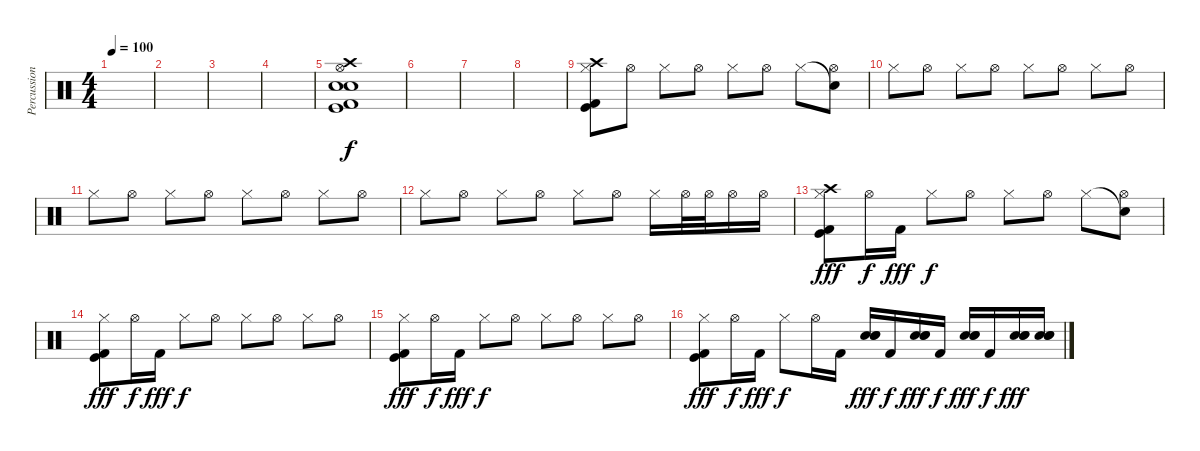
\track ("Percussion" "Percussion") {instrument percussion}
\staff {score}
\articulation defaults
\ts (4 4)
\tempo 100
\clef neutral
\ks c
|
|
|
|
("Crash high (hit)" "Hi-Hat (open)" "Snare (hit) 2" "Snare (hit) 2" "Kick (hit)" "Kick (hit) 2").1 |
|
|
|
("Crash high (hit)" "Hi-Hat (closed)" "Kick (hit)" "Kick (hit) 2").8 "Hi-Hat (open)".8{dy f} "Hi-Hat (closed)".8 "Hi-Hat (open)".8 "Hi-Hat (closed)".8 "Hi-Hat (open)".8 "Hi-Hat (closed)".8 ("Snare (hit)"{t} "Hi-Hat (open)").8 |
"Hi-Hat (closed)".8 "Hi-Hat (open)".8 "Hi-Hat (closed)".8 "Hi-Hat (open)".8 "Hi-Hat (closed)".8 "Hi-Hat (open)".8 "Hi-Hat (closed)".8 "Hi-Hat (open)".8 |
"Hi-Hat (closed)".8 "Hi-Hat (open)".8 "Hi-Hat (closed)".8 "Hi-Hat (open)".8 "Hi-Hat (closed)".8 "Hi-Hat (open)".8 "Hi-Hat (closed)".8 "Hi-Hat (open)".8 |
"Hi-Hat (closed)".8 "Hi-Hat (open)".8 "Hi-Hat (closed)".8 "Hi-Hat (open)".8 "Hi-Hat (closed)".8 "Hi-Hat (open)".8 "Hi-Hat (closed)".16 "Hi-Hat (open)".32 "Hi-Hat (open)".32 "Hi-Hat (open)".16 "Hi-Hat (open)".16 |
("Crash high (hit)" "Hi-Hat (closed)" "Kick (hit)" "Kick (hit) 2").8{dy fff} "Hi-Hat (open)".16{dy f} "Kick (hit) 2".16{dy fff} "Hi-Hat (closed)".8{dy f} "Hi-Hat (open)".8 "Hi-Hat (closed)".8 "Hi-Hat (open)".8 "Hi-Hat (closed)".8 ("Snare (hit)"{t} "Hi-Hat (open)").8 |
("Hi-Hat (closed)" "Kick (hit)" "Kick (hit) 2").8{dy fff} "Hi-Hat (open)".16{dy f} "Kick (hit) 2".16{dy fff} "Hi-Hat (closed)".8{dy f} "Hi-Hat (open)".8 "Hi-Hat (closed)".8 "Hi-Hat (open)".8 "Hi-Hat (closed)".8 "Hi-Hat (open)".8 |
("Hi-Hat (closed)" "Kick (hit)" "Kick (hit) 2").8{dy fff} "Hi-Hat (open)".16{dy f} "Kick (hit) 2".16{dy fff} "Hi-Hat (closed)".8{dy f} "Hi-Hat (open)".8 "Hi-Hat (closed)".8 "Hi-Hat (open)".8 "Hi-Hat (closed)".8 "Hi-Hat (open)".8 |
("Hi-Hat (closed)" "Kick (hit)" "Kick (hit) 2").8{dy fff} "Hi-Hat (open)".16{dy f} "Kick (hit) 2".16{dy fff} "Hi-Hat (closed)".8{dy f} "Hi-Hat (open)".16 "Kick (hit) 2".16 ("Electric Snare (hit)" "Snare (hit) 2" "Snare (hit) 2").16{dy fff} "Kick (hit) 2".16{dy f} ("Electric Snare (hit)" "Snare (hit) 2" "Snare (hit) 2").16{dy fff} "Kick (hit) 2".16{dy f} ("Electric Snare (hit)" "Snare (hit) 2" "Snare (hit) 2").16{dy fff} "Kick (hit) 2".16{dy f} ("Electric Snare (hit)" "Snare (hit) 2" "Snare (hit) 2").16{dy fff} ("Electric Snare (hit)" "Snare (hit) 2" "Snare (hit) 2").16
